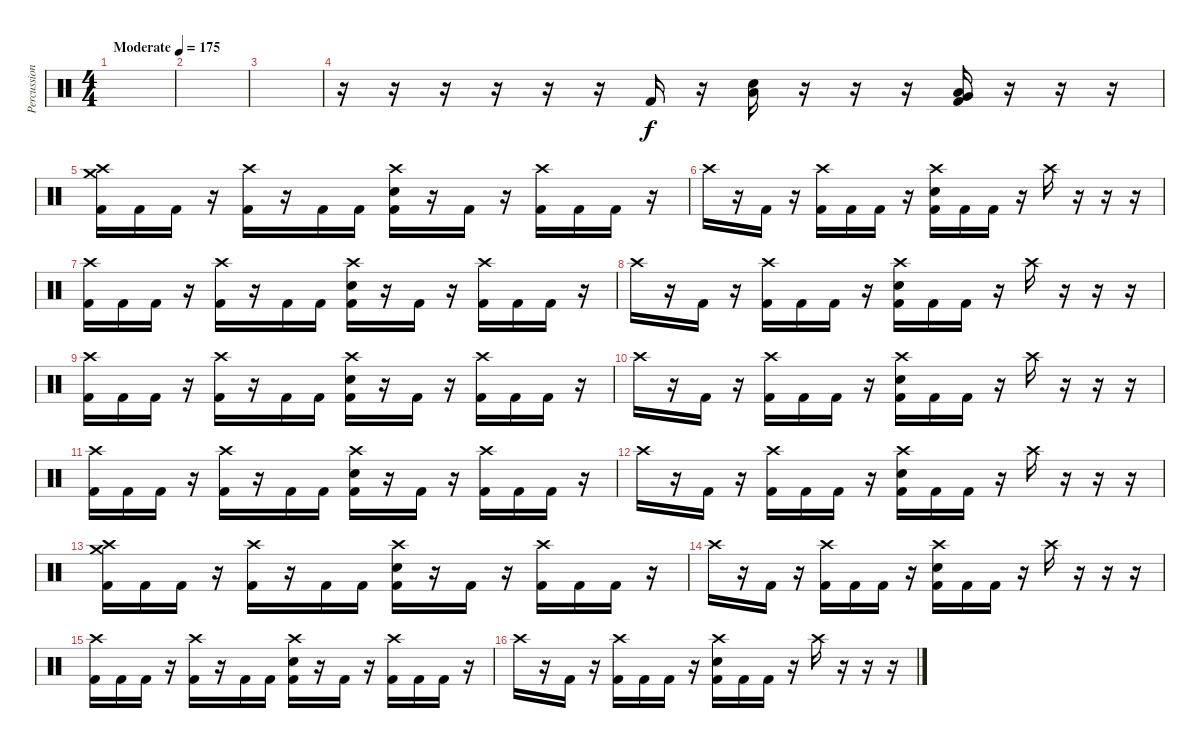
\track ("Percussion" "Percussion") {instrument percussion}
\staff {score}
\articulation defaults
\ts (4 4)
\tempo (175 "Moderate")
\clef neutral
\ks c
|
|
|
r.16 r.16 r.16 r.16 r.16 r.16 "Kick (hit) 2".16 r.16 ("Electric Snare (hit)" "Low Floor Tom (hit)").16 r.16 r.16 r.16 ("Low Tom (hit)" "Very Low Tom (hit)" "Kick (hit) 2").16 r.16 r.16 r.16 |
("Crash high (hit)" "Crash medium (hit)" "Kick (hit) 2").16 "Kick (hit) 2".16 "Kick (hit) 2".16 r.16 ("Crash high (hit)" "Kick (hit) 2").16 r.16 "Kick (hit) 2".16 "Kick (hit) 2".16 ("Crash high (hit)" "Electric Snare (hit)" "Kick (hit) 2").16 r.16 "Kick (hit) 2".16 r.16 ("Crash high (hit)" "Kick (hit) 2").16 "Kick (hit) 2".16 "Kick (hit) 2".16 r.16 |
"Crash high (hit)".16 r.16 "Kick (hit) 2".16 r.16 ("Crash high (hit)" "Kick (hit) 2").16 "Kick (hit) 2".16 "Kick (hit) 2".16 r.16 ("Crash high (hit)" "Electric Snare (hit)" "Kick (hit) 2").16 "Kick (hit) 2".16 "Kick (hit) 2".16 r.16 "Crash high (hit)".16 r.16 r.16 r.16 |
("Crash high (hit)" "Kick (hit) 2").16 "Kick (hit) 2".16 "Kick (hit) 2".16 r.16 ("Crash high (hit)" "Kick (hit) 2").16 r.16 "Kick (hit) 2".16 "Kick (hit) 2".16 ("Crash high (hit)" "Electric Snare (hit)" "Kick (hit) 2").16 r.16 "Kick (hit) 2".16 r.16 ("Crash high (hit)" "Kick (hit) 2").16 "Kick (hit) 2".16 "Kick (hit) 2".16 r.16 |
"Crash high (hit)".16 r.16 "Kick (hit) 2".16 r.16 ("Crash high (hit)" "Kick (hit) 2").16 "Kick (hit) 2".16 "Kick (hit) 2".16 r.16 ("Crash high (hit)" "Electric Snare (hit)" "Kick (hit) 2").16 "Kick (hit) 2".16 "Kick (hit) 2".16 r.16 "Crash high (hit)".16 r.16 r.16 r.16 |
("Crash high (hit)" "Kick (hit) 2").16 "Kick (hit) 2".16 "Kick (hit) 2".16 r.16 ("Crash high (hit)" "Kick (hit) 2").16 r.16 "Kick (hit) 2".16 "Kick (hit) 2".16 ("Crash high (hit)" "Electric Snare (hit)" "Kick (hit) 2").16 r.16 "Kick (hit) 2".16 r.16 ("Crash high (hit)" "Kick (hit) 2").16 "Kick (hit) 2".16 "Kick (hit) 2".16 r.16 |
"Crash high (hit)".16 r.16 "Kick (hit) 2".16 r.16 ("Crash high (hit)" "Kick (hit) 2").16 "Kick (hit) 2".16 "Kick (hit) 2".16 r.16 ("Crash high (hit)" "Electric Snare (hit)" "Kick (hit) 2").16 "Kick (hit) 2".16 "Kick (hit) 2".16 r.16 "Crash high (hit)".16 r.16 r.16 r.16 |
("Crash high (hit)" "Kick (hit) 2").16 "Kick (hit) 2".16 "Kick (hit) 2".16 r.16 ("Crash high (hit)" "Kick (hit) 2").16 r.16 "Kick (hit) 2".16 "Kick (hit) 2".16 ("Crash high (hit)" "Electric Snare (hit)" "Kick (hit) 2").16 r.16 "Kick (hit) 2".16 r.16 ("Crash high (hit)" "Kick (hit) 2").16 "Kick (hit) 2".16 "Kick (hit) 2".16 r.16 |
"Crash high (hit)".16 r.16 "Kick (hit) 2".16 r.16 ("Crash high (hit)" "Kick (hit) 2").16 "Kick (hit) 2".16 "Kick (hit) 2".16 r.16 ("Crash high (hit)" "Electric Snare (hit)" "Kick (hit) 2").16 "Kick (hit) 2".16 "Kick (hit) 2".16 r.16 "Crash high (hit)".16 r.16 r.16 r.16 |
("Crash high (hit)" "Crash medium (hit)" "Kick (hit) 2").16 "Kick (hit) 2".16 "Kick (hit) 2".16 r.16 ("Crash high (hit)" "Kick (hit) 2").16 r.16 "Kick (hit) 2".16 "Kick (hit) 2".16 ("Crash high (hit)" "Electric Snare (hit)" "Kick (hit) 2").16 r.16 "Kick (hit) 2".16 r.16 ("Crash high (hit)" "Kick (hit) 2").16 "Kick (hit) 2".16 "Kick (hit) 2".16 r.16 |
"Crash high (hit)".16 r.16 "Kick (hit) 2".16 r.16 ("Crash high (hit)" "Kick (hit) 2").16 "Kick (hit) 2".16 "Kick (hit) 2".16 r.16 ("Crash high (hit)" "Electric Snare (hit)" "Kick (hit) 2").16 "Kick (hit) 2".16 "Kick (hit) 2".16 r.16 "Crash high (hit)".16 r.16 r.16 r.16 |
("Crash high (hit)" "Kick (hit) 2").16 "Kick (hit) 2".16 "Kick (hit) 2".16 r.16 ("Crash high (hit)" "Kick (hit) 2").16 r.16 "Kick (hit) 2".16 "Kick (hit) 2".16 ("Crash high (hit)" "Electric Snare (hit)" "Kick (hit) 2").16 r.16 "Kick (hit) 2".16 r.16 ("Crash high (hit)" "Kick (hit) 2").16 "Kick (hit) 2".16 "Kick (hit) 2".16 r.16 |
"Crash high (hit)".16 r.16 "Kick (hit) 2".16 r.16 ("Crash high (hit)" "Kick (hit) 2").16 "Kick (hit) 2".16 "Kick (hit) 2".16 r.16 ("Crash high (hit)" "Electric Snare (hit)" "Kick (hit) 2").16 "Kick (hit) 2".16 "Kick (hit) 2".16 r.16 "Crash high (hit)".16 r.16 r.16 r.16
